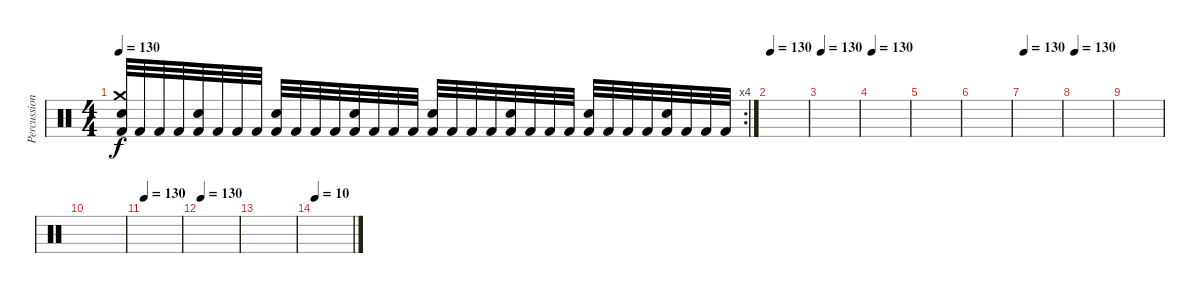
\track ("Percussion" "Percussion") {instrument percussion}
\staff {score}
\articulation defaults
\rc 4
\ts (4 4)
\tempo 130
\clef neutral
\ks c
("Kick (hit) 2" "Crash medium (hit)" "Snare (hit) 2").32{dy f} "Kick (hit) 2".32 "Kick (hit) 2".32 "Kick (hit) 2".32 ("Kick (hit) 2" "Snare (hit) 2").32 "Kick (hit) 2".32 "Kick (hit) 2".32 "Kick (hit) 2".32 ("Kick (hit) 2" "Snare (hit) 2").32 "Kick (hit) 2".32 "Kick (hit) 2".32 "Kick (hit) 2".32 ("Kick (hit) 2" "Snare (hit) 2").32 "Kick (hit) 2".32 "Kick (hit) 2".32 "Kick (hit) 2".32 ("Kick (hit) 2" "Snare (hit) 2").32 "Kick (hit) 2".32 "Kick (hit) 2".32 "Kick (hit) 2".32 ("Kick (hit) 2" "Snare (hit) 2").32 "Kick (hit) 2".32 "Kick (hit) 2".32 "Kick (hit) 2".32 ("Kick (hit) 2" "Snare (hit) 2").32 "Kick (hit) 2".32 "Kick (hit) 2".32 "Kick (hit) 2".32 ("Kick (hit) 2" "Snare (hit) 2").32 "Kick (hit) 2".32 "Kick (hit) 2".32 "Kick (hit) 2".32 |
\tempo 130
|
\tempo 130
|
\tempo 130
|
|
|
\tempo 130
|
\tempo 130
|
|
|
\tempo 130
|
\tempo 130
|
|
\tempo 10
